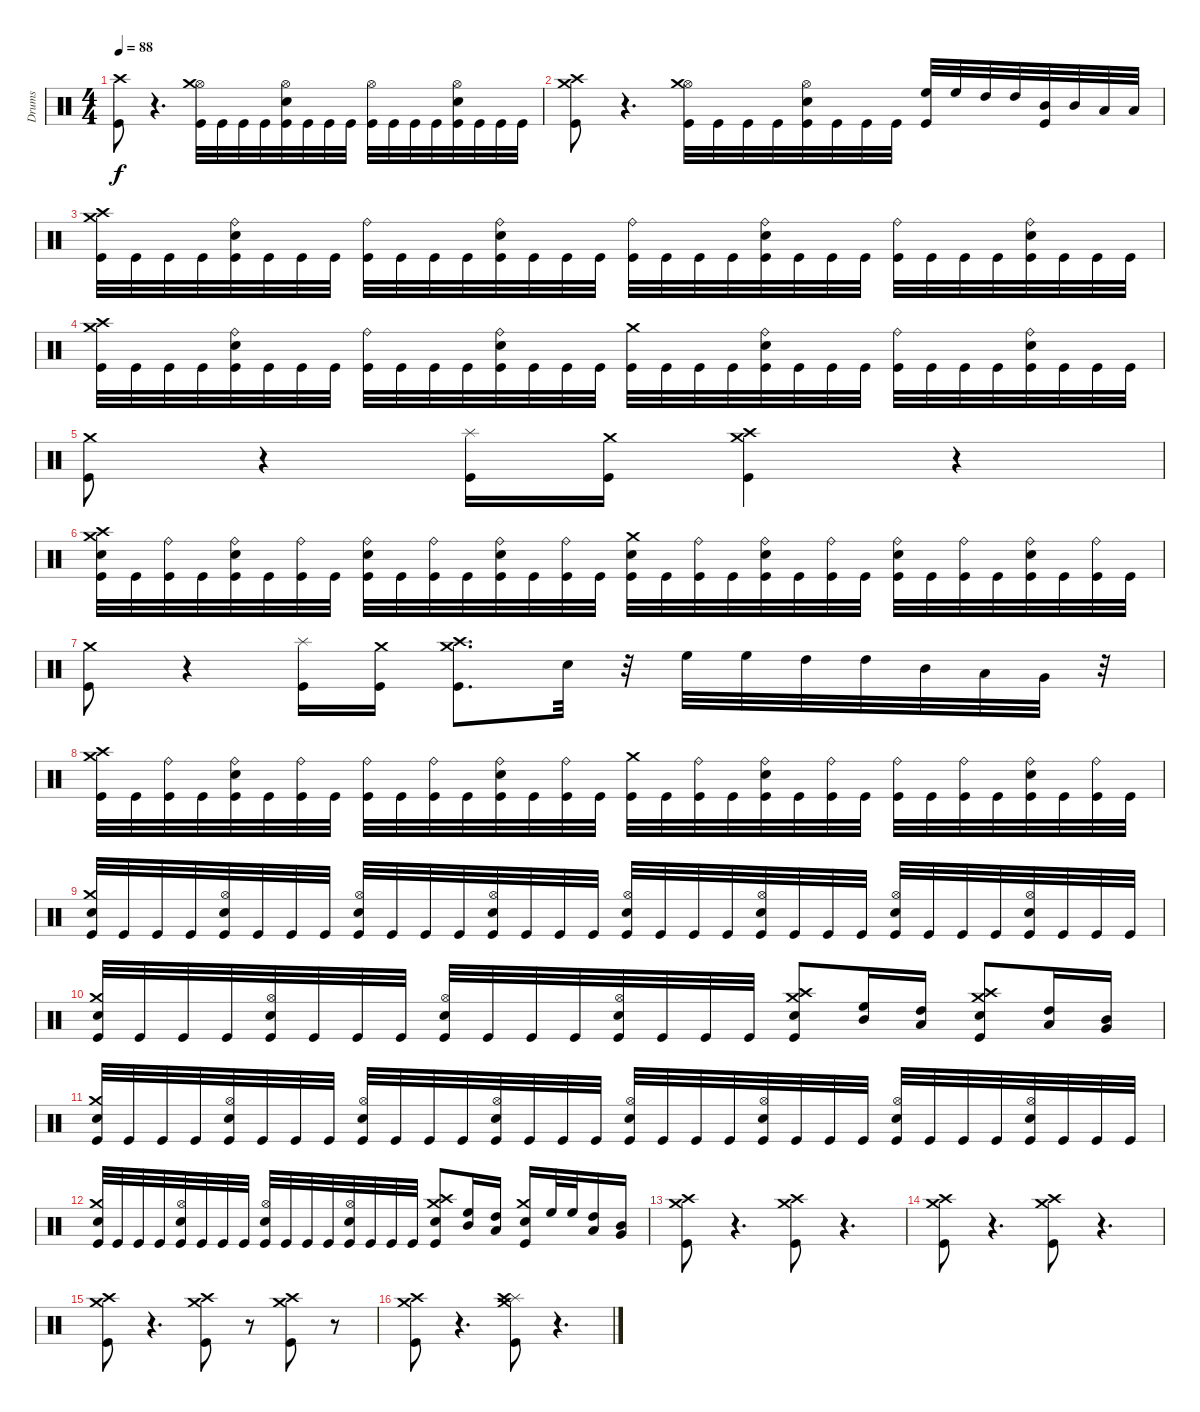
\track ("Drums" "Drums") {instrument percussion}
\staff {score}
\articulation defaults
\ts (4 4)
\tempo 88
\clef neutral
\ks c
("Kick (hit)" "Crash high (hit)").8{dy f} r.4{d} ("Hi-Hat (open)" "Kick (hit)" "Crash medium (hit)").32 "Kick (hit)".32 "Kick (hit)".32 "Kick (hit)".32 ("Hi-Hat (open)" "Snare (hit) 2" "Kick (hit)").32 "Kick (hit)".32 "Kick (hit)".32 "Kick (hit)".32 ("Hi-Hat (open)" "Kick (hit)").32 "Kick (hit)".32 "Kick (hit)".32 "Kick (hit)".32 ("Hi-Hat (open)" "Snare (hit) 2" "Kick (hit)").32 "Kick (hit)".32 "Kick (hit)".32 "Kick (hit)".32 |
("Kick (hit)" "Crash high (hit)" "Crash medium (hit)").8 r.4{d} ("Hi-Hat (open)" "Kick (hit)" "Crash medium (hit)").32 "Kick (hit)".32 "Kick (hit)".32 "Kick (hit)".32 ("Hi-Hat (open)" "Snare (hit) 2" "Kick (hit)").32 "Kick (hit)".32 "Kick (hit)".32 "Kick (hit)".32 ("High Floor Tom (hit)" "Kick (hit)").32 "High Floor Tom (hit)".32 "High Tom (hit)".32 "High Tom (hit)".32 ("Mid Tom (hit)" "Kick (hit)").32 "Mid Tom (hit)".32 "Low Tom (hit)".32 "Low Tom (hit)".32 |
("Crash high (hit)" "Crash medium (hit)" "Kick (hit)").32 "Kick (hit)".32 "Kick (hit)".32 "Kick (hit)".32 ("Snare (hit) 2" "Ride (bell)" "Kick (hit)").32 "Kick (hit)".32 "Kick (hit)".32 "Kick (hit)".32 ("Ride (bell)" "Kick (hit)").32 "Kick (hit)".32 "Kick (hit)".32 "Kick (hit)".32 ("Snare (hit) 2" "Ride (bell)" "Kick (hit)").32 "Kick (hit)".32 "Kick (hit)".32 "Kick (hit)".32 ("Ride (bell)" "Kick (hit)").32 "Kick (hit)".32 "Kick (hit)".32 "Kick (hit)".32 ("Snare (hit) 2" "Ride (bell)" "Kick (hit)").32 "Kick (hit)".32 "Kick (hit)".32 "Kick (hit)".32 ("Ride (bell)" "Kick (hit)").32 "Kick (hit)".32 "Kick (hit)".32 "Kick (hit)".32 ("Snare (hit) 2" "Ride (bell)" "Kick (hit)").32 "Kick (hit)".32 "Kick (hit)".32 "Kick (hit)".32 |
("Crash high (hit)" "Crash medium (hit)" "Kick (hit)").32 "Kick (hit)".32 "Kick (hit)".32 "Kick (hit)".32 ("Snare (hit) 2" "Ride (bell)" "Kick (hit)").32 "Kick (hit)".32 "Kick (hit)".32 "Kick (hit)".32 ("Ride (bell)" "Kick (hit)").32 "Kick (hit)".32 "Kick (hit)".32 "Kick (hit)".32 ("Snare (hit) 2" "Ride (bell)" "Kick (hit)").32 "Kick (hit)".32 "Kick (hit)".32 "Kick (hit)".32 ("Crash medium (hit)" "Kick (hit)").32 "Kick (hit)".32 "Kick (hit)".32 "Kick (hit)".32 ("Snare (hit) 2" "Ride (bell)" "Kick (hit)").32 "Kick (hit)".32 "Kick (hit)".32 "Kick (hit)".32 ("Ride (bell)" "Kick (hit)").32 "Kick (hit)".32 "Kick (hit)".32 "Kick (hit)".32 ("Snare (hit) 2" "Ride (bell)" "Kick (hit)").32 "Kick (hit)".32 "Kick (hit)".32 "Kick (hit)".32 |
("Kick (hit)" "Crash medium (hit)").8 r.4 ("Splash (hit)" "Kick (hit)").16 ("Crash medium (hit)" "Kick (hit)").16 ("Crash medium (hit)" "Crash high (hit)" "Kick (hit)").4 r.4 |
("Snare (hit) 2" "Crash high (hit)" "Crash medium (hit)" "Kick (hit)").32 "Kick (hit)".32 ("Ride (bell)" "Kick (hit)").32 "Kick (hit)".32 ("Snare (hit) 2" "Ride (bell)" "Kick (hit)").32 "Kick (hit)".32 ("Ride (bell)" "Kick (hit)").32 "Kick (hit)".32 ("Snare (hit) 2" "Ride (bell)" "Kick (hit)").32 "Kick (hit)".32 ("Ride (bell)" "Kick (hit)").32 "Kick (hit)".32 ("Snare (hit) 2" "Ride (bell)" "Kick (hit)").32 "Kick (hit)".32 ("Ride (bell)" "Kick (hit)").32 "Kick (hit)".32 ("Snare (hit) 2" "Crash medium (hit)" "Kick (hit)").32 "Kick (hit)".32 ("Ride (bell)" "Kick (hit)").32 "Kick (hit)".32 ("Snare (hit) 2" "Ride (bell)" "Kick (hit)").32 "Kick (hit)".32 ("Ride (bell)" "Kick (hit)").32 "Kick (hit)".32 ("Snare (hit) 2" "Ride (bell)" "Kick (hit)").32 "Kick (hit)".32 ("Ride (bell)" "Kick (hit)").32 "Kick (hit)".32 ("Snare (hit) 2" "Ride (bell)" "Kick (hit)").32 "Kick (hit)".32 ("Ride (bell)" "Kick (hit)").32 "Kick (hit)".32 |
("Kick (hit)" "Crash medium (hit)").8 r.4 ("Splash (hit)" "Kick (hit)").16 ("Crash medium (hit)" "Kick (hit)").16 ("Crash medium (hit)" "Crash high (hit)" "Kick (hit)").8{d} "Snare (hit) 2".32 r.32 "High Floor Tom (hit)".32 "High Floor Tom (hit)".32 "High Tom (hit)".32 "High Tom (hit)".32 "Mid Tom (hit)".32 "Low Tom (hit)".32 "Very Low Tom (hit)".32 r.32 |
("Crash high (hit)" "Crash medium (hit)" "Kick (hit)").32 "Kick (hit)".32 ("Ride (bell)" "Kick (hit)").32 "Kick (hit)".32 ("Snare (hit) 2" "Ride (bell)" "Kick (hit)").32 "Kick (hit)".32 ("Ride (bell)" "Kick (hit)").32 "Kick (hit)".32 ("Ride (bell)" "Kick (hit)").32 "Kick (hit)".32 ("Ride (bell)" "Kick (hit)").32 "Kick (hit)".32 ("Snare (hit) 2" "Ride (bell)" "Kick (hit)").32 "Kick (hit)".32 ("Ride (bell)" "Kick (hit)").32 "Kick (hit)".32 ("Crash medium (hit)" "Kick (hit)").32 "Kick (hit)".32 ("Ride (bell)" "Kick (hit)").32 "Kick (hit)".32 ("Snare (hit) 2" "Ride (bell)" "Kick (hit)").32 "Kick (hit)".32 ("Ride (bell)" "Kick (hit)").32 "Kick (hit)".32 ("Ride (bell)" "Kick (hit)").32 "Kick (hit)".32 ("Ride (bell)" "Kick (hit)").32 "Kick (hit)".32 ("Snare (hit) 2" "Ride (bell)" "Kick (hit)").32 "Kick (hit)".32 ("Ride (bell)" "Kick (hit)").32 "Kick (hit)".32 |
("Crash medium (hit)" "Kick (hit)" "Snare (hit) 2").32 "Kick (hit)".32 "Kick (hit)".32 "Kick (hit)".32 ("Hi-Hat (open)" "Snare (hit) 2" "Kick (hit)").32 "Kick (hit)".32 "Kick (hit)".32 "Kick (hit)".32 ("Hi-Hat (open)" "Kick (hit)" "Snare (hit) 2").32 "Kick (hit)".32 "Kick (hit)".32 "Kick (hit)".32 ("Hi-Hat (open)" "Kick (hit)" "Snare (hit) 2").32 "Kick (hit)".32 "Kick (hit)".32 "Kick (hit)".32 ("Hi-Hat (open)" "Kick (hit)" "Snare (hit) 2").32 "Kick (hit)".32 "Kick (hit)".32 "Kick (hit)".32 ("Hi-Hat (open)" "Kick (hit)" "Snare (hit) 2").32 "Kick (hit)".32 "Kick (hit)".32 "Kick (hit)".32 ("Hi-Hat (open)" "Kick (hit)" "Snare (hit) 2").32 "Kick (hit)".32 "Kick (hit)".32 "Kick (hit)".32 ("Hi-Hat (open)" "Kick (hit)" "Snare (hit) 2").32 "Kick (hit)".32 "Kick (hit)".32 "Kick (hit)".32 |
("Crash medium (hit)" "Kick (hit)" "Snare (hit) 2").32 "Kick (hit)".32 "Kick (hit)".32 "Kick (hit)".32 ("Hi-Hat (open)" "Snare (hit) 2" "Kick (hit)").32 "Kick (hit)".32 "Kick (hit)".32 "Kick (hit)".32 ("Hi-Hat (open)" "Kick (hit)" "Snare (hit) 2").32 "Kick (hit)".32 "Kick (hit)".32 "Kick (hit)".32 ("Hi-Hat (open)" "Kick (hit)" "Snare (hit) 2").32 "Kick (hit)".32 "Kick (hit)".32 "Kick (hit)".32 ("Crash high (hit)" "Crash medium (hit)" "Kick (hit)" "Snare (hit) 2").8 ("Mid Tom (hit)" "High Floor Tom (hit)").16 ("Low Tom (hit)" "High Tom (hit)").16 ("Crash high (hit)" "Kick (hit)" "Snare (hit) 2" "Crash medium (hit)").8 ("Low Tom (hit)" "High Tom (hit)").16 ("Very Low Tom (hit)" "Mid Tom (hit)").16 |
("Crash medium (hit)" "Kick (hit)" "Snare (hit) 2").32 "Kick (hit)".32 "Kick (hit)".32 "Kick (hit)".32 ("Hi-Hat (open)" "Snare (hit) 2" "Kick (hit)").32 "Kick (hit)".32 "Kick (hit)".32 "Kick (hit)".32 ("Hi-Hat (open)" "Kick (hit)" "Snare (hit) 2").32 "Kick (hit)".32 "Kick (hit)".32 "Kick (hit)".32 ("Hi-Hat (open)" "Kick (hit)" "Snare (hit) 2").32 "Kick (hit)".32 "Kick (hit)".32 "Kick (hit)".32 ("Hi-Hat (open)" "Kick (hit)" "Snare (hit) 2").32 "Kick (hit)".32 "Kick (hit)".32 "Kick (hit)".32 ("Hi-Hat (open)" "Kick (hit)" "Snare (hit) 2").32 "Kick (hit)".32 "Kick (hit)".32 "Kick (hit)".32 ("Hi-Hat (open)" "Kick (hit)" "Snare (hit) 2").32 "Kick (hit)".32 "Kick (hit)".32 "Kick (hit)".32 ("Hi-Hat (open)" "Kick (hit)" "Snare (hit) 2").32 "Kick (hit)".32 "Kick (hit)".32 "Kick (hit)".32 |
("Crash medium (hit)" "Kick (hit)" "Snare (hit) 2").32 "Kick (hit)".32 "Kick (hit)".32 "Kick (hit)".32 ("Hi-Hat (open)" "Snare (hit) 2" "Kick (hit)").32 "Kick (hit)".32 "Kick (hit)".32 "Kick (hit)".32 ("Hi-Hat (open)" "Kick (hit)" "Snare (hit) 2").32 "Kick (hit)".32 "Kick (hit)".32 "Kick (hit)".32 ("Hi-Hat (open)" "Kick (hit)" "Snare (hit) 2").32 "Kick (hit)".32 "Kick (hit)".32 "Kick (hit)".32 ("Crash high (hit)" "Crash medium (hit)" "Kick (hit)" "Snare (hit) 2").8 ("Mid Tom (hit)" "High Floor Tom (hit)").16 ("Low Tom (hit)" "High Tom (hit)").16 ("Kick (hit)" "Snare (hit) 2" "Crash medium (hit)").16 "High Floor Tom (hit)".32 "High Floor Tom (hit)".32 ("Low Tom (hit)" "High Tom (hit)").16 ("Very Low Tom (hit)" "Mid Tom (hit)").16 |
("Crash high (hit)" "Kick (hit)" "Crash medium (hit)").8 r.4{d} ("Kick (hit)" "Crash high (hit)" "Crash medium (hit)").8 r.4{d} |
("Crash high (hit)" "Crash medium (hit)" "Kick (hit)").8 r.4{d} ("Crash high (hit)" "Crash medium (hit)" "Kick (hit)").8 r.4{d} |
("Crash high (hit)" "Crash medium (hit)" "Kick (hit)").8 r.4{d} ("Crash high (hit)" "Crash medium (hit)" "Kick (hit)").8 r.8 ("Kick (hit)" "Crash high (hit)" "Crash medium (hit)").8 r.8 |
("Crash high (hit)" "Crash medium (hit)" "Kick (hit)").8 r.4{d} ("Crash medium (hit)" "Splash (hit)" "Crash high (hit)" "Kick (hit)").8 r.4{d}
